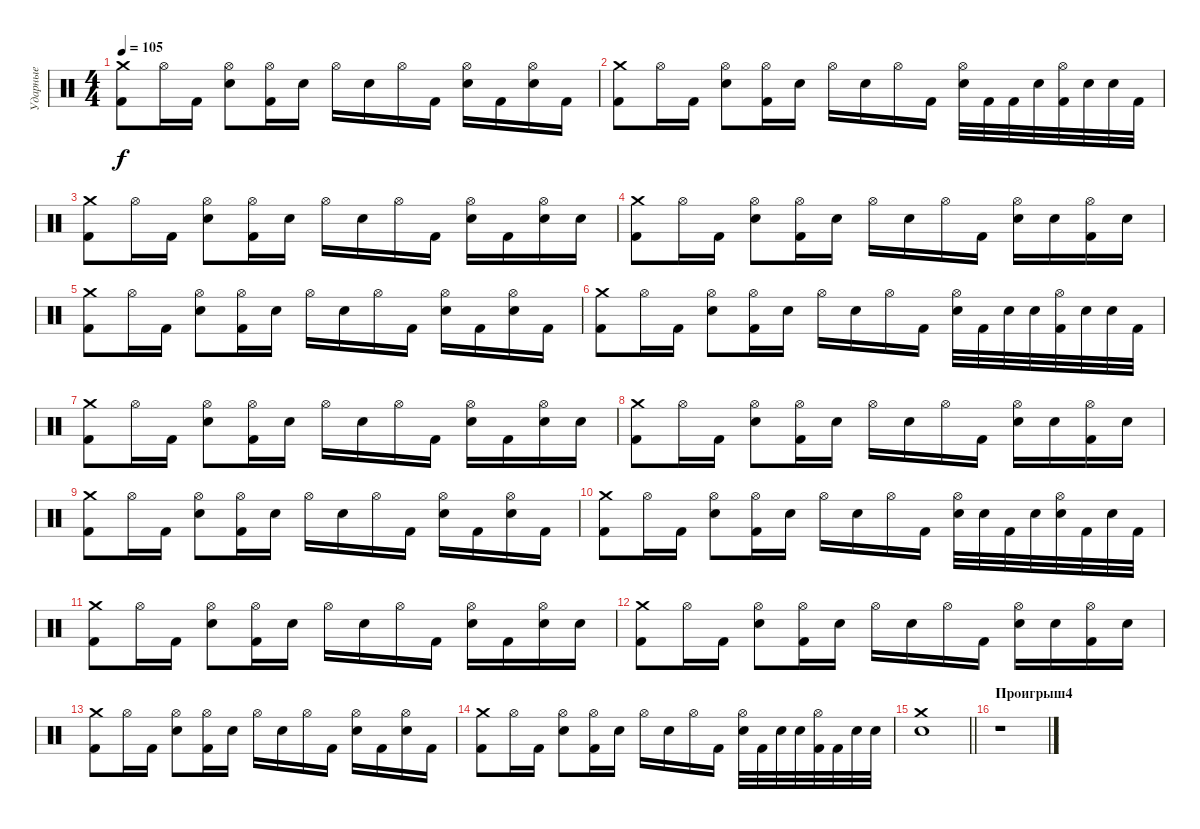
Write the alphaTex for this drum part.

\track ("Ударные" "Ударные") {instrument percussion}
\staff {score}
\articulation defaults
\ts (4 4)
\tempo 105
\clef neutral
\ks c
("Crash medium (hit)" "Kick (hit) 2").8{dy f} "Hi-Hat (open)".16 "Kick (hit) 2".16 ("Hi-Hat (open)" "Electric Snare (hit)").8 ("Hi-Hat (open)" "Kick (hit) 2").16 "Electric Snare (hit)".16 "Hi-Hat (open)".16 "Electric Snare (hit)".16 "Hi-Hat (open)".16 "Kick (hit) 2".16 ("Hi-Hat (open)" "Electric Snare (hit)").16 "Kick (hit) 2".16 ("Hi-Hat (open)" "Electric Snare (hit)").16 "Kick (hit) 2".16 |
("Crash medium (hit)" "Kick (hit) 2").8 "Hi-Hat (open)".16 "Kick (hit) 2".16 ("Hi-Hat (open)" "Electric Snare (hit)").8 ("Hi-Hat (open)" "Kick (hit) 2").16 "Electric Snare (hit)".16 "Hi-Hat (open)".16 "Electric Snare (hit)".16 "Hi-Hat (open)".16 "Kick (hit) 2".16 ("Electric Snare (hit)" "Hi-Hat (open)").32 "Kick (hit) 2".32 "Kick (hit) 2".32 "Electric Snare (hit)".32 ("Kick (hit) 2" "Hi-Hat (open)").32 "Electric Snare (hit)".32 "Electric Snare (hit)".32 "Kick (hit) 2".32 |
("Crash medium (hit)" "Kick (hit) 2").8 "Hi-Hat (open)".16 "Kick (hit) 2".16 ("Hi-Hat (open)" "Electric Snare (hit)").8 ("Hi-Hat (open)" "Kick (hit) 2").16 "Electric Snare (hit)".16 "Hi-Hat (open)".16 "Electric Snare (hit)".16 "Hi-Hat (open)".16 "Kick (hit) 2".16 ("Hi-Hat (open)" "Electric Snare (hit)").16 "Kick (hit) 2".16 ("Hi-Hat (open)" "Electric Snare (hit)").16 "Electric Snare (hit)".16 |
("Crash medium (hit)" "Kick (hit) 2").8 "Hi-Hat (open)".16 "Kick (hit) 2".16 ("Hi-Hat (open)" "Electric Snare (hit)").8 ("Hi-Hat (open)" "Kick (hit) 2").16 "Electric Snare (hit)".16 "Hi-Hat (open)".16 "Electric Snare (hit)".16 "Hi-Hat (open)".16 "Kick (hit) 2".16 ("Hi-Hat (open)" "Electric Snare (hit)").16 "Electric Snare (hit)".16 ("Hi-Hat (open)" "Kick (hit) 2").16 "Electric Snare (hit)".16 |
("Crash medium (hit)" "Kick (hit) 2").8 "Hi-Hat (open)".16 "Kick (hit) 2".16 ("Hi-Hat (open)" "Electric Snare (hit)").8 ("Hi-Hat (open)" "Kick (hit) 2").16 "Electric Snare (hit)".16 "Hi-Hat (open)".16 "Electric Snare (hit)".16 "Hi-Hat (open)".16 "Kick (hit) 2".16 ("Hi-Hat (open)" "Electric Snare (hit)").16 "Kick (hit) 2".16 ("Hi-Hat (open)" "Electric Snare (hit)").16 "Kick (hit) 2".16 |
("Crash medium (hit)" "Kick (hit) 2").8 "Hi-Hat (open)".16 "Kick (hit) 2".16 ("Hi-Hat (open)" "Electric Snare (hit)").8 ("Hi-Hat (open)" "Kick (hit) 2").16 "Electric Snare (hit)".16 "Hi-Hat (open)".16 "Electric Snare (hit)".16 "Hi-Hat (open)".16 "Kick (hit) 2".16 ("Electric Snare (hit)" "Hi-Hat (open)").32 "Kick (hit) 2".32 "Electric Snare (hit)".32 "Electric Snare (hit)".32 ("Kick (hit) 2" "Hi-Hat (open)").32 "Electric Snare (hit)".32 "Electric Snare (hit)".32 "Kick (hit) 2".32 |
("Crash medium (hit)" "Kick (hit) 2").8 "Hi-Hat (open)".16 "Kick (hit) 2".16 ("Hi-Hat (open)" "Electric Snare (hit)").8 ("Hi-Hat (open)" "Kick (hit) 2").16 "Electric Snare (hit)".16 "Hi-Hat (open)".16 "Electric Snare (hit)".16 "Hi-Hat (open)".16 "Kick (hit) 2".16 ("Hi-Hat (open)" "Electric Snare (hit)").16 "Kick (hit) 2".16 ("Hi-Hat (open)" "Electric Snare (hit)").16 "Electric Snare (hit)".16 |
("Crash medium (hit)" "Kick (hit) 2").8 "Hi-Hat (open)".16 "Kick (hit) 2".16 ("Hi-Hat (open)" "Electric Snare (hit)").8 ("Hi-Hat (open)" "Kick (hit) 2").16 "Electric Snare (hit)".16 "Hi-Hat (open)".16 "Electric Snare (hit)".16 "Hi-Hat (open)".16 "Kick (hit) 2".16 ("Hi-Hat (open)" "Electric Snare (hit)").16 "Electric Snare (hit)".16 ("Hi-Hat (open)" "Kick (hit) 2").16 "Electric Snare (hit)".16 |
("Crash medium (hit)" "Kick (hit) 2").8 "Hi-Hat (open)".16 "Kick (hit) 2".16 ("Hi-Hat (open)" "Electric Snare (hit)").8 ("Hi-Hat (open)" "Kick (hit) 2").16 "Electric Snare (hit)".16 "Hi-Hat (open)".16 "Electric Snare (hit)".16 "Hi-Hat (open)".16 "Kick (hit) 2".16 ("Hi-Hat (open)" "Electric Snare (hit)").16 "Kick (hit) 2".16 ("Hi-Hat (open)" "Electric Snare (hit)").16 "Kick (hit) 2".16 |
("Crash medium (hit)" "Kick (hit) 2").8 "Hi-Hat (open)".16 "Kick (hit) 2".16 ("Hi-Hat (open)" "Electric Snare (hit)").8 ("Hi-Hat (open)" "Kick (hit) 2").16 "Electric Snare (hit)".16 "Hi-Hat (open)".16 "Electric Snare (hit)".16 "Hi-Hat (open)".16 "Kick (hit) 2".16 ("Electric Snare (hit)" "Hi-Hat (open)").32 "Electric Snare (hit)".32 "Kick (hit) 2".32 "Electric Snare (hit)".32 ("Electric Snare (hit)" "Hi-Hat (open)").32 "Kick (hit) 2".32 "Electric Snare (hit)".32 "Kick (hit) 2".32 |
("Crash medium (hit)" "Kick (hit) 2").8 "Hi-Hat (open)".16 "Kick (hit) 2".16 ("Hi-Hat (open)" "Electric Snare (hit)").8 ("Hi-Hat (open)" "Kick (hit) 2").16 "Electric Snare (hit)".16 "Hi-Hat (open)".16 "Electric Snare (hit)".16 "Hi-Hat (open)".16 "Kick (hit) 2".16 ("Hi-Hat (open)" "Electric Snare (hit)").16 "Kick (hit) 2".16 ("Hi-Hat (open)" "Electric Snare (hit)").16 "Electric Snare (hit)".16 |
("Crash medium (hit)" "Kick (hit) 2").8 "Hi-Hat (open)".16 "Kick (hit) 2".16 ("Hi-Hat (open)" "Electric Snare (hit)").8 ("Hi-Hat (open)" "Kick (hit) 2").16 "Electric Snare (hit)".16 "Hi-Hat (open)".16 "Electric Snare (hit)".16 "Hi-Hat (open)".16 "Kick (hit) 2".16 ("Hi-Hat (open)" "Electric Snare (hit)").16 "Electric Snare (hit)".16 ("Hi-Hat (open)" "Kick (hit) 2").16 "Electric Snare (hit)".16 |
("Crash medium (hit)" "Kick (hit) 2").8 "Hi-Hat (open)".16 "Kick (hit) 2".16 ("Hi-Hat (open)" "Electric Snare (hit)").8 ("Hi-Hat (open)" "Kick (hit) 2").16 "Electric Snare (hit)".16 "Hi-Hat (open)".16 "Electric Snare (hit)".16 "Hi-Hat (open)".16 "Kick (hit) 2".16 ("Hi-Hat (open)" "Electric Snare (hit)").16 "Kick (hit) 2".16 ("Hi-Hat (open)" "Electric Snare (hit)").16 "Kick (hit) 2".16 |
("Crash medium (hit)" "Kick (hit) 2").8 "Hi-Hat (open)".16 "Kick (hit) 2".16 ("Hi-Hat (open)" "Electric Snare (hit)").8 ("Hi-Hat (open)" "Kick (hit) 2").16 "Electric Snare (hit)".16 "Hi-Hat (open)".16 "Electric Snare (hit)".16 "Hi-Hat (open)".16 "Kick (hit) 2".16 ("Electric Snare (hit)" "Hi-Hat (open)").32 "Kick (hit) 2".32 "Electric Snare (hit)".32 "Electric Snare (hit)".32 ("Kick (hit) 2" "Hi-Hat (open)").32 "Kick (hit) 2".32 "Electric Snare (hit)".32 "Electric Snare (hit)".32 |
\barLineRight lightlight
("Crash medium (hit)" "Electric Snare (hit)").1 |
\section ("" "Проигрыш4")
r.1
